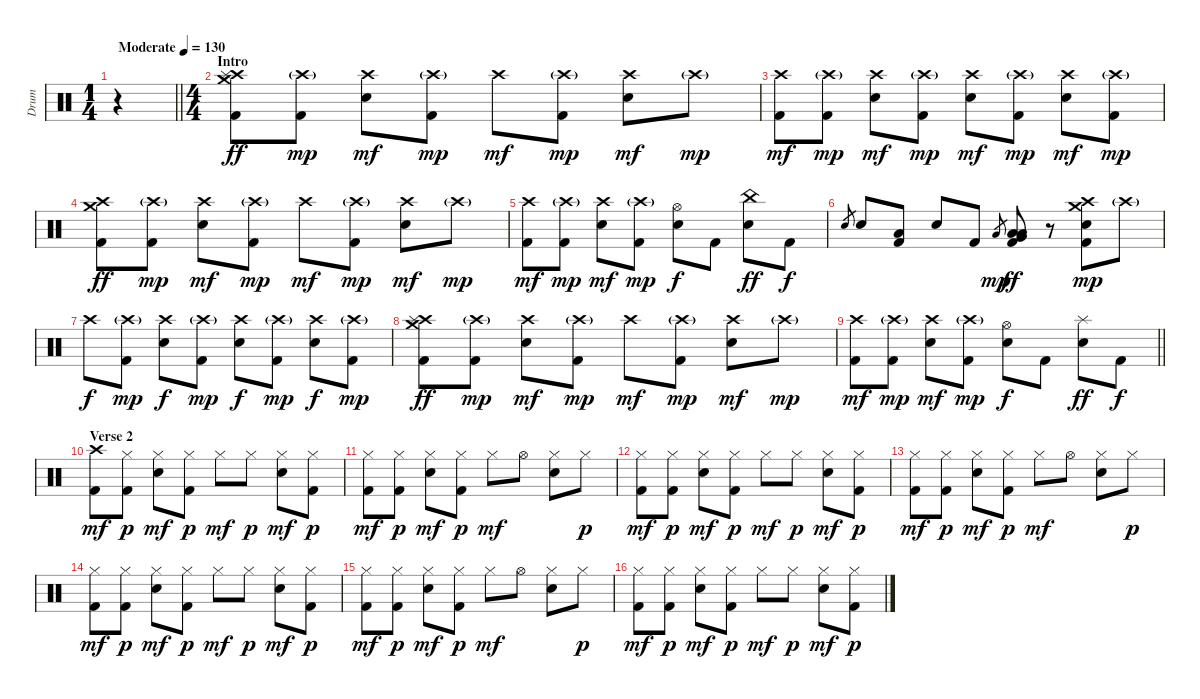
\track ("Drum" "Drum") {instrument percussion}
\staff {score}
\articulation defaults
\ts (1 4)
\tempo (130 "Moderate")
\clef neutral
\barLineRight lightlight
\ks c
r.4{dy ff} |
\ts (4 4)
\section ("" "Intro")
("Crash high (hit)" "Crash medium (hit)" "Splash (hit)" "Kick (hit) 2").8 ("Crash high (hit)"{g} "Kick (hit) 2").8{dy mp} ("Crash high (hit)" "Electric Snare (hit)").8{dy mf} ("Crash high (hit)"{g} "Kick (hit) 2").8{dy mp} "Crash high (hit)".8{dy mf} ("Crash high (hit)"{g} "Kick (hit) 2").8{dy mp} ("Crash high (hit)" "Electric Snare (hit)").8{dy mf} "Crash high (hit)"{g}.8{dy mp} |
("Crash high (hit)" "Kick (hit) 2").8{dy mf} ("Crash high (hit)"{g} "Kick (hit) 2").8{dy mp} ("Crash high (hit)" "Electric Snare (hit)").8{dy mf} ("Crash high (hit)"{g} "Kick (hit) 2").8{dy mp} ("Crash high (hit)" "Electric Snare (hit)").8{dy mf} ("Crash high (hit)"{g} "Kick (hit) 2").8{dy mp} ("Crash high (hit)" "Electric Snare (hit)").8{dy mf} ("Crash high (hit)"{g} "Kick (hit) 2").8{dy mp} |
("Crash high (hit)" "Crash medium (hit)" "Kick (hit) 2").8{dy ff} ("Crash high (hit)"{g} "Kick (hit) 2").8{dy mp} ("Crash high (hit)" "Electric Snare (hit)").8{dy mf} ("Crash high (hit)"{g} "Kick (hit) 2").8{dy mp} "Crash high (hit)".8{dy mf} ("Crash high (hit)"{g} "Kick (hit) 2").8{dy mp} ("Crash high (hit)" "Electric Snare (hit)").8{dy mf} "Crash high (hit)"{g}.8{dy mp} |
("Crash high (hit)" "Kick (hit) 2").8{dy mf} ("Crash high (hit)"{g} "Kick (hit) 2").8{dy mp} ("Crash high (hit)" "Electric Snare (hit)").8{dy mf} ("Crash high (hit)"{g} "Kick (hit) 2").8{dy mp} ("Hi-Hat (open)" "Electric Snare (hit)").8{dy f} "Kick (hit) 2".8 ("China (hit)" "Electric Snare (hit)").8{dy ff} "Kick (hit) 2".8{dy f} |
"Electric Snare (hit)".8{gr} "Electric Snare (hit)".8 ("Low Floor Tom (hit)" "Kick (hit) 2").8 "Electric Snare (hit)".8 "Kick (hit) 2".8 "Low Tom (hit)".8{gr dy mp} ("Very Low Tom (hit)" "Low Floor Tom (hit)" "Low Tom (hit)" "Kick (hit) 2").8{dy ff} r.8 ("Crash high (hit)" "Crash medium (hit)" "Electric Snare (hit)" "Kick (hit) 2").8{dy mp} "Crash high (hit)"{g}.8 |
"Crash high (hit)".8{dy f} ("Crash high (hit)"{g} "Kick (hit) 2").8{dy mp} ("Crash high (hit)" "Electric Snare (hit)").8{dy f} ("Crash high (hit)"{g} "Kick (hit) 2").8{dy mp} ("Crash high (hit)" "Electric Snare (hit)").8{dy f} ("Crash high (hit)"{g} "Kick (hit) 2").8{dy mp} ("Crash high (hit)" "Electric Snare (hit)").8{dy f} ("Crash high (hit)"{g} "Kick (hit) 2").8{dy mp} |
("Crash high (hit)" "Crash medium (hit)" "Splash (hit)" "Kick (hit) 2").8{dy ff} ("Crash high (hit)"{g} "Kick (hit) 2").8{dy mp} ("Crash high (hit)" "Electric Snare (hit)").8{dy mf} ("Crash high (hit)"{g} "Kick (hit) 2").8{dy mp} "Crash high (hit)".8{dy mf} ("Crash high (hit)"{g} "Kick (hit) 2").8{dy mp} ("Crash high (hit)" "Electric Snare (hit)").8{dy mf} "Crash high (hit)"{g}.8{dy mp} |
\barLineRight lightlight
("Crash high (hit)" "Kick (hit) 2").8{dy mf} ("Crash high (hit)"{g} "Kick (hit) 2").8{dy mp} ("Crash high (hit)" "Electric Snare (hit)").8{dy mf} ("Crash high (hit)"{g} "Kick (hit) 2").8{dy mp} ("Hi-Hat (open)" "Electric Snare (hit)").8{dy f} "Kick (hit) 2".8 ("Splash (hit)" "Electric Snare (hit)").8{dy ff} "Kick (hit) 2".8{dy f} |
\section ("" "Verse 2")
("Crash high (hit)" "Kick (hit) 2").8{dy mf} ("Hi-Hat (closed)" "Kick (hit) 2").8{dy p} ("Hi-Hat (closed)" "Electric Snare (hit)").8{dy mf} ("Hi-Hat (closed)" "Kick (hit) 2").8{dy p} "Hi-Hat (closed)".8{dy mf} "Hi-Hat (closed)".8{dy p} ("Hi-Hat (closed)" "Electric Snare (hit)").8{dy mf} ("Hi-Hat (closed)" "Kick (hit) 2").8{dy p} |
("Hi-Hat (closed)" "Kick (hit) 2").8{dy mf} ("Hi-Hat (closed)" "Kick (hit) 2").8{dy p} ("Hi-Hat (closed)" "Electric Snare (hit)").8{dy mf} ("Hi-Hat (closed)" "Kick (hit) 2").8{dy p} "Hi-Hat (closed)".8{dy mf} "Hi-Hat (open)".8 ("Hi-Hat (closed)" "Electric Snare (hit)").8 "Hi-Hat (closed)".8{dy p} |
("Hi-Hat (closed)" "Kick (hit) 2").8{dy mf} ("Hi-Hat (closed)" "Kick (hit) 2").8{dy p} ("Hi-Hat (closed)" "Electric Snare (hit)").8{dy mf} ("Hi-Hat (closed)" "Kick (hit) 2").8{dy p} "Hi-Hat (closed)".8{dy mf} "Hi-Hat (closed)".8{dy p} ("Hi-Hat (closed)" "Electric Snare (hit)").8{dy mf} ("Hi-Hat (closed)" "Kick (hit) 2").8{dy p} |
("Hi-Hat (closed)" "Kick (hit) 2").8{dy mf} ("Hi-Hat (closed)" "Kick (hit) 2").8{dy p} ("Hi-Hat (closed)" "Electric Snare (hit)").8{dy mf} ("Hi-Hat (closed)" "Kick (hit) 2").8{dy p} "Hi-Hat (closed)".8{dy mf} "Hi-Hat (open)".8 ("Hi-Hat (closed)" "Electric Snare (hit)").8 "Hi-Hat (closed)".8{dy p} |
("Hi-Hat (closed)" "Kick (hit) 2").8{dy mf} ("Hi-Hat (closed)" "Kick (hit) 2").8{dy p} ("Hi-Hat (closed)" "Electric Snare (hit)").8{dy mf} ("Hi-Hat (closed)" "Kick (hit) 2").8{dy p} "Hi-Hat (closed)".8{dy mf} "Hi-Hat (closed)".8{dy p} ("Hi-Hat (closed)" "Electric Snare (hit)").8{dy mf} ("Hi-Hat (closed)" "Kick (hit) 2").8{dy p} |
("Hi-Hat (closed)" "Kick (hit) 2").8{dy mf} ("Hi-Hat (closed)" "Kick (hit) 2").8{dy p} ("Hi-Hat (closed)" "Electric Snare (hit)").8{dy mf} ("Hi-Hat (closed)" "Kick (hit) 2").8{dy p} "Hi-Hat (closed)".8{dy mf} "Hi-Hat (open)".8 ("Hi-Hat (closed)" "Electric Snare (hit)").8 "Hi-Hat (closed)".8{dy p} |
("Hi-Hat (closed)" "Kick (hit) 2").8{dy mf} ("Hi-Hat (closed)" "Kick (hit) 2").8{dy p} ("Hi-Hat (closed)" "Electric Snare (hit)").8{dy mf} ("Hi-Hat (closed)" "Kick (hit) 2").8{dy p} "Hi-Hat (closed)".8{dy mf} "Hi-Hat (closed)".8{dy p} ("Hi-Hat (closed)" "Electric Snare (hit)").8{dy mf} ("Hi-Hat (closed)" "Kick (hit) 2").8{dy p}
